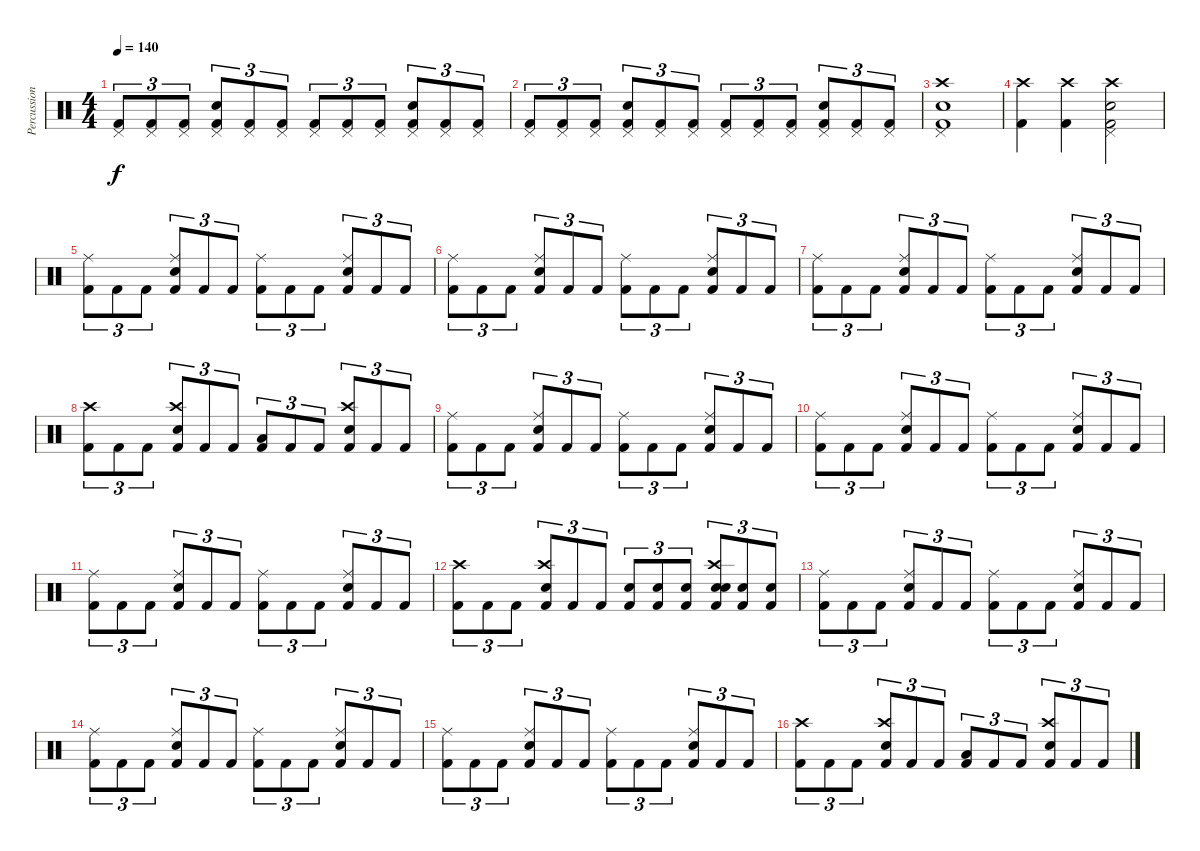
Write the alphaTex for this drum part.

\track ("Percussion" "Percussion") {instrument percussion}
\staff {score}
\articulation defaults
\ts (4 4)
\tempo 140
\clef neutral
\ks c
("Pedal Hi-Hat (hit)" "Kick (hit) 2").8{tu (3 2) dy f} ("Pedal Hi-Hat (hit)" "Kick (hit) 2").8{tu (3 2)} ("Pedal Hi-Hat (hit)" "Kick (hit) 2").8{tu (3 2)} ("Snare (hit) 2" "Pedal Hi-Hat (hit)" "Kick (hit) 2").8{tu (3 2)} ("Pedal Hi-Hat (hit)" "Kick (hit) 2").8{tu (3 2)} ("Pedal Hi-Hat (hit)" "Kick (hit) 2").8{tu (3 2)} ("Pedal Hi-Hat (hit)" "Kick (hit) 2").8{tu (3 2)} ("Pedal Hi-Hat (hit)" "Kick (hit) 2").8{tu (3 2)} ("Pedal Hi-Hat (hit)" "Kick (hit) 2").8{tu (3 2)} ("Snare (hit) 2" "Pedal Hi-Hat (hit)" "Kick (hit) 2").8{tu (3 2)} ("Pedal Hi-Hat (hit)" "Kick (hit) 2").8{tu (3 2)} ("Pedal Hi-Hat (hit)" "Kick (hit) 2").8{tu (3 2)} |
("Pedal Hi-Hat (hit)" "Kick (hit) 2").8{tu (3 2)} ("Pedal Hi-Hat (hit)" "Kick (hit) 2").8{tu (3 2)} ("Pedal Hi-Hat (hit)" "Kick (hit) 2").8{tu (3 2)} ("Snare (hit) 2" "Pedal Hi-Hat (hit)" "Kick (hit) 2").8{tu (3 2)} ("Pedal Hi-Hat (hit)" "Kick (hit) 2").8{tu (3 2)} ("Pedal Hi-Hat (hit)" "Kick (hit) 2").8{tu (3 2)} ("Pedal Hi-Hat (hit)" "Kick (hit) 2").8{tu (3 2)} ("Pedal Hi-Hat (hit)" "Kick (hit) 2").8{tu (3 2)} ("Pedal Hi-Hat (hit)" "Kick (hit) 2").8{tu (3 2)} ("Snare (hit) 2" "Pedal Hi-Hat (hit)" "Kick (hit) 2").8{tu (3 2)} ("Pedal Hi-Hat (hit)" "Kick (hit) 2").8{tu (3 2)} ("Pedal Hi-Hat (hit)" "Kick (hit) 2").8{tu (3 2)} |
("Crash high (hit)" "Snare (hit) 2" "Pedal Hi-Hat (hit)" "Kick (hit) 2").1 |
("Crash high (hit)" "Kick (hit) 2").4 ("Crash high (hit)" "Kick (hit) 2").4 ("Crash high (hit)" "Snare (hit) 2" "Pedal Hi-Hat (hit)" "Kick (hit) 2").2 |
("Ride (middle)" "Kick (hit) 2").8{tu (3 2)} "Kick (hit) 2".8{tu (3 2)} "Kick (hit) 2".8{tu (3 2)} ("Ride (middle)" "Electric Snare (hit)" "Kick (hit) 2").8{tu (3 2)} "Kick (hit) 2".8{tu (3 2)} "Kick (hit) 2".8{tu (3 2)} ("Ride (middle)" "Kick (hit) 2").8{tu (3 2)} "Kick (hit) 2".8{tu (3 2)} "Kick (hit) 2".8{tu (3 2)} ("Ride (middle)" "Electric Snare (hit)" "Kick (hit) 2").8{tu (3 2)} "Kick (hit) 2".8{tu (3 2)} "Kick (hit) 2".8{tu (3 2)} |
("Ride (middle)" "Kick (hit) 2").8{tu (3 2)} "Kick (hit) 2".8{tu (3 2)} "Kick (hit) 2".8{tu (3 2)} ("Ride (middle)" "Electric Snare (hit)" "Kick (hit) 2").8{tu (3 2)} "Kick (hit) 2".8{tu (3 2)} "Kick (hit) 2".8{tu (3 2)} ("Ride (middle)" "Kick (hit) 2").8{tu (3 2)} "Kick (hit) 2".8{tu (3 2)} "Kick (hit) 2".8{tu (3 2)} ("Ride (middle)" "Electric Snare (hit)" "Kick (hit) 2").8{tu (3 2)} "Kick (hit) 2".8{tu (3 2)} "Kick (hit) 2".8{tu (3 2)} |
("Ride (middle)" "Kick (hit) 2").8{tu (3 2)} "Kick (hit) 2".8{tu (3 2)} "Kick (hit) 2".8{tu (3 2)} ("Ride (middle)" "Electric Snare (hit)" "Kick (hit) 2").8{tu (3 2)} "Kick (hit) 2".8{tu (3 2)} "Kick (hit) 2".8{tu (3 2)} ("Ride (middle)" "Kick (hit) 2").8{tu (3 2)} "Kick (hit) 2".8{tu (3 2)} "Kick (hit) 2".8{tu (3 2)} ("Ride (middle)" "Electric Snare (hit)" "Kick (hit) 2").8{tu (3 2)} "Kick (hit) 2".8{tu (3 2)} "Kick (hit) 2".8{tu (3 2)} |
("Crash high (hit)" "Kick (hit) 2").8{tu (3 2)} "Kick (hit) 2".8{tu (3 2)} "Kick (hit) 2".8{tu (3 2)} ("Crash high (hit)" "Electric Snare (hit)" "Kick (hit) 2").8{tu (3 2)} "Kick (hit) 2".8{tu (3 2)} "Kick (hit) 2".8{tu (3 2)} ("Low Floor Tom (hit)" "Kick (hit) 2").8{tu (3 2)} "Kick (hit) 2".8{tu (3 2)} "Kick (hit) 2".8{tu (3 2)} ("Crash high (hit)" "Electric Snare (hit)" "Kick (hit) 2").8{tu (3 2)} "Kick (hit) 2".8{tu (3 2)} "Kick (hit) 2".8{tu (3 2)} |
("Ride (middle)" "Kick (hit) 2").8{tu (3 2)} "Kick (hit) 2".8{tu (3 2)} "Kick (hit) 2".8{tu (3 2)} ("Ride (middle)" "Electric Snare (hit)" "Kick (hit) 2").8{tu (3 2)} "Kick (hit) 2".8{tu (3 2)} "Kick (hit) 2".8{tu (3 2)} ("Ride (middle)" "Kick (hit) 2").8{tu (3 2)} "Kick (hit) 2".8{tu (3 2)} "Kick (hit) 2".8{tu (3 2)} ("Ride (middle)" "Electric Snare (hit)" "Kick (hit) 2").8{tu (3 2)} "Kick (hit) 2".8{tu (3 2)} "Kick (hit) 2".8{tu (3 2)} |
("Ride (middle)" "Kick (hit) 2").8{tu (3 2)} "Kick (hit) 2".8{tu (3 2)} "Kick (hit) 2".8{tu (3 2)} ("Ride (middle)" "Electric Snare (hit)" "Kick (hit) 2").8{tu (3 2)} "Kick (hit) 2".8{tu (3 2)} "Kick (hit) 2".8{tu (3 2)} ("Ride (middle)" "Kick (hit) 2").8{tu (3 2)} "Kick (hit) 2".8{tu (3 2)} "Kick (hit) 2".8{tu (3 2)} ("Ride (middle)" "Electric Snare (hit)" "Kick (hit) 2").8{tu (3 2)} "Kick (hit) 2".8{tu (3 2)} "Kick (hit) 2".8{tu (3 2)} |
("Ride (middle)" "Kick (hit) 2").8{tu (3 2)} "Kick (hit) 2".8{tu (3 2)} "Kick (hit) 2".8{tu (3 2)} ("Ride (middle)" "Electric Snare (hit)" "Kick (hit) 2").8{tu (3 2)} "Kick (hit) 2".8{tu (3 2)} "Kick (hit) 2".8{tu (3 2)} ("Ride (middle)" "Kick (hit) 2").8{tu (3 2)} "Kick (hit) 2".8{tu (3 2)} "Kick (hit) 2".8{tu (3 2)} ("Ride (middle)" "Electric Snare (hit)" "Kick (hit) 2").8{tu (3 2)} "Kick (hit) 2".8{tu (3 2)} "Kick (hit) 2".8{tu (3 2)} |
("Crash high (hit)" "Kick (hit) 2").8{tu (3 2)} "Kick (hit) 2".8{tu (3 2)} "Kick (hit) 2".8{tu (3 2)} ("Crash high (hit)" "Electric Snare (hit)" "Kick (hit) 2").8{tu (3 2)} "Kick (hit) 2".8{tu (3 2)} "Kick (hit) 2".8{tu (3 2)} ("Electric Snare (hit)" "Kick (hit) 2").8{tu (3 2)} ("Electric Snare (hit)" "Kick (hit) 2").8{tu (3 2)} ("Electric Snare (hit)" "Kick (hit) 2").8{tu (3 2)} ("Crash high (hit)" "Electric Snare (hit)" "Electric Snare (hit)" "Kick (hit) 2").8{tu (3 2)} ("Electric Snare (hit)" "Kick (hit) 2").8{tu (3 2)} ("Electric Snare (hit)" "Kick (hit) 2").8{tu (3 2)} |
("Ride (middle)" "Kick (hit) 2").8{tu (3 2)} "Kick (hit) 2".8{tu (3 2)} "Kick (hit) 2".8{tu (3 2)} ("Ride (middle)" "Electric Snare (hit)" "Kick (hit) 2").8{tu (3 2)} "Kick (hit) 2".8{tu (3 2)} "Kick (hit) 2".8{tu (3 2)} ("Ride (middle)" "Kick (hit) 2").8{tu (3 2)} "Kick (hit) 2".8{tu (3 2)} "Kick (hit) 2".8{tu (3 2)} ("Ride (middle)" "Electric Snare (hit)" "Kick (hit) 2").8{tu (3 2)} "Kick (hit) 2".8{tu (3 2)} "Kick (hit) 2".8{tu (3 2)} |
("Ride (middle)" "Kick (hit) 2").8{tu (3 2)} "Kick (hit) 2".8{tu (3 2)} "Kick (hit) 2".8{tu (3 2)} ("Ride (middle)" "Electric Snare (hit)" "Kick (hit) 2").8{tu (3 2)} "Kick (hit) 2".8{tu (3 2)} "Kick (hit) 2".8{tu (3 2)} ("Ride (middle)" "Kick (hit) 2").8{tu (3 2)} "Kick (hit) 2".8{tu (3 2)} "Kick (hit) 2".8{tu (3 2)} ("Ride (middle)" "Electric Snare (hit)" "Kick (hit) 2").8{tu (3 2)} "Kick (hit) 2".8{tu (3 2)} "Kick (hit) 2".8{tu (3 2)} |
("Ride (middle)" "Kick (hit) 2").8{tu (3 2)} "Kick (hit) 2".8{tu (3 2)} "Kick (hit) 2".8{tu (3 2)} ("Ride (middle)" "Electric Snare (hit)" "Kick (hit) 2").8{tu (3 2)} "Kick (hit) 2".8{tu (3 2)} "Kick (hit) 2".8{tu (3 2)} ("Ride (middle)" "Kick (hit) 2").8{tu (3 2)} "Kick (hit) 2".8{tu (3 2)} "Kick (hit) 2".8{tu (3 2)} ("Ride (middle)" "Electric Snare (hit)" "Kick (hit) 2").8{tu (3 2)} "Kick (hit) 2".8{tu (3 2)} "Kick (hit) 2".8{tu (3 2)} |
("Crash high (hit)" "Kick (hit) 2").8{tu (3 2)} "Kick (hit) 2".8{tu (3 2)} "Kick (hit) 2".8{tu (3 2)} ("Crash high (hit)" "Electric Snare (hit)" "Kick (hit) 2").8{tu (3 2)} "Kick (hit) 2".8{tu (3 2)} "Kick (hit) 2".8{tu (3 2)} ("Low Floor Tom (hit)" "Kick (hit) 2").8{tu (3 2)} "Kick (hit) 2".8{tu (3 2)} "Kick (hit) 2".8{tu (3 2)} ("Crash high (hit)" "Electric Snare (hit)" "Kick (hit) 2").8{tu (3 2)} "Kick (hit) 2".8{tu (3 2)} "Kick (hit) 2".8{tu (3 2)}
